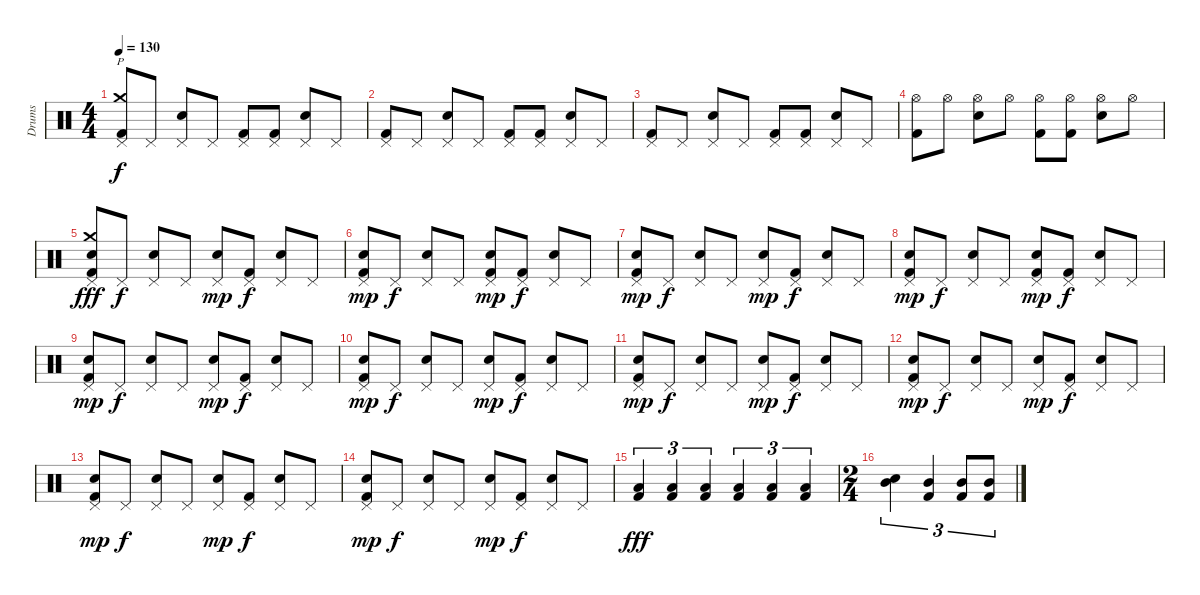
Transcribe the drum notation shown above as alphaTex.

\track ("Drums" "Drums") {instrument percussion}
\staff {score}
\articulation defaults
\ts (4 4)
\tempo 130
\clef neutral
\ks c
("Kick (hit) 2" "Crash medium (hit)" "Pedal Hi-Hat (hit)").8{p dy f} "Pedal Hi-Hat (hit)".8 ("Electric Snare (hit)" "Pedal Hi-Hat (hit)").8 "Pedal Hi-Hat (hit)".8 ("Kick (hit) 2" "Pedal Hi-Hat (hit)").8 ("Kick (hit) 2" "Pedal Hi-Hat (hit)").8 ("Electric Snare (hit)" "Pedal Hi-Hat (hit)").8 "Pedal Hi-Hat (hit)".8 |
("Kick (hit) 2" "Pedal Hi-Hat (hit)").8 "Pedal Hi-Hat (hit)".8 ("Electric Snare (hit)" "Pedal Hi-Hat (hit)").8 "Pedal Hi-Hat (hit)".8 ("Kick (hit) 2" "Pedal Hi-Hat (hit)").8 ("Kick (hit) 2" "Pedal Hi-Hat (hit)").8 ("Electric Snare (hit)" "Pedal Hi-Hat (hit)").8 "Pedal Hi-Hat (hit)".8 |
("Kick (hit) 2" "Pedal Hi-Hat (hit)").8 "Pedal Hi-Hat (hit)".8 ("Electric Snare (hit)" "Pedal Hi-Hat (hit)").8 "Pedal Hi-Hat (hit)".8 ("Kick (hit) 2" "Pedal Hi-Hat (hit)").8 ("Kick (hit) 2" "Pedal Hi-Hat (hit)").8 ("Electric Snare (hit)" "Pedal Hi-Hat (hit)").8 "Pedal Hi-Hat (hit)".8 |
("Kick (hit) 2" "Hi-Hat (open)").8 "Hi-Hat (open)".8 ("Electric Snare (hit)" "Hi-Hat (open)").8 "Hi-Hat (open)".8 ("Kick (hit) 2" "Hi-Hat (open)").8 ("Kick (hit) 2" "Hi-Hat (open)").8 ("Electric Snare (hit)" "Hi-Hat (open)").8 "Hi-Hat (open)".8 |
("Kick (hit) 2" "Electric Snare (hit)" "Pedal Hi-Hat (hit)" "Crash medium (hit)").8{dy fff} "Pedal Hi-Hat (hit)".8{dy f} ("Electric Snare (hit)" "Pedal Hi-Hat (hit)").8 "Pedal Hi-Hat (hit)".8 ("Pedal Hi-Hat (hit)" "Electric Snare (hit)").8{dy mp} ("Kick (hit) 2" "Pedal Hi-Hat (hit)").8{dy f} ("Electric Snare (hit)" "Pedal Hi-Hat (hit)").8 "Pedal Hi-Hat (hit)".8 |
("Kick (hit) 2" "Pedal Hi-Hat (hit)" "Electric Snare (hit)").8{dy mp} "Pedal Hi-Hat (hit)".8{dy f} ("Electric Snare (hit)" "Pedal Hi-Hat (hit)").8 "Pedal Hi-Hat (hit)".8 ("Kick (hit) 2" "Pedal Hi-Hat (hit)" "Electric Snare (hit)").8{dy mp} ("Kick (hit) 2" "Pedal Hi-Hat (hit)").8{dy f} ("Electric Snare (hit)" "Pedal Hi-Hat (hit)").8 "Pedal Hi-Hat (hit)".8 |
("Kick (hit) 2" "Electric Snare (hit)" "Pedal Hi-Hat (hit)").8{dy mp} "Pedal Hi-Hat (hit)".8{dy f} ("Electric Snare (hit)" "Pedal Hi-Hat (hit)").8 "Pedal Hi-Hat (hit)".8 ("Pedal Hi-Hat (hit)" "Electric Snare (hit)").8{dy mp} ("Kick (hit) 2" "Pedal Hi-Hat (hit)").8{dy f} ("Electric Snare (hit)" "Pedal Hi-Hat (hit)").8 "Pedal Hi-Hat (hit)".8 |
("Kick (hit) 2" "Pedal Hi-Hat (hit)" "Electric Snare (hit)").8{dy mp} "Pedal Hi-Hat (hit)".8{dy f} ("Electric Snare (hit)" "Pedal Hi-Hat (hit)").8 "Pedal Hi-Hat (hit)".8 ("Kick (hit) 2" "Pedal Hi-Hat (hit)" "Electric Snare (hit)").8{dy mp} ("Kick (hit) 2" "Pedal Hi-Hat (hit)").8{dy f} ("Electric Snare (hit)" "Pedal Hi-Hat (hit)").8 "Pedal Hi-Hat (hit)".8 |
("Kick (hit) 2" "Electric Snare (hit)" "Pedal Hi-Hat (hit)").8{dy mp} "Pedal Hi-Hat (hit)".8{dy f} ("Electric Snare (hit)" "Pedal Hi-Hat (hit)").8 "Pedal Hi-Hat (hit)".8 ("Pedal Hi-Hat (hit)" "Electric Snare (hit)").8{dy mp} ("Kick (hit) 2" "Pedal Hi-Hat (hit)").8{dy f} ("Electric Snare (hit)" "Pedal Hi-Hat (hit)").8 "Pedal Hi-Hat (hit)".8 |
("Kick (hit) 2" "Electric Snare (hit)" "Pedal Hi-Hat (hit)").8{dy mp} "Pedal Hi-Hat (hit)".8{dy f} ("Electric Snare (hit)" "Pedal Hi-Hat (hit)").8 "Pedal Hi-Hat (hit)".8 ("Pedal Hi-Hat (hit)" "Electric Snare (hit)").8{dy mp} ("Kick (hit) 2" "Pedal Hi-Hat (hit)").8{dy f} ("Electric Snare (hit)" "Pedal Hi-Hat (hit)").8 "Pedal Hi-Hat (hit)".8 |
("Kick (hit) 2" "Electric Snare (hit)" "Pedal Hi-Hat (hit)").8{dy mp} "Pedal Hi-Hat (hit)".8{dy f} ("Electric Snare (hit)" "Pedal Hi-Hat (hit)").8 "Pedal Hi-Hat (hit)".8 ("Pedal Hi-Hat (hit)" "Electric Snare (hit)").8{dy mp} ("Kick (hit) 2" "Pedal Hi-Hat (hit)").8{dy f} ("Electric Snare (hit)" "Pedal Hi-Hat (hit)").8 "Pedal Hi-Hat (hit)".8 |
("Kick (hit) 2" "Electric Snare (hit)" "Pedal Hi-Hat (hit)").8{dy mp} "Pedal Hi-Hat (hit)".8{dy f} ("Electric Snare (hit)" "Pedal Hi-Hat (hit)").8 "Pedal Hi-Hat (hit)".8 ("Pedal Hi-Hat (hit)" "Electric Snare (hit)").8{dy mp} ("Kick (hit) 2" "Pedal Hi-Hat (hit)").8{dy f} ("Electric Snare (hit)" "Pedal Hi-Hat (hit)").8 "Pedal Hi-Hat (hit)".8 |
("Kick (hit) 2" "Electric Snare (hit)" "Pedal Hi-Hat (hit)").8{dy mp} "Pedal Hi-Hat (hit)".8{dy f} ("Electric Snare (hit)" "Pedal Hi-Hat (hit)").8 "Pedal Hi-Hat (hit)".8 ("Pedal Hi-Hat (hit)" "Electric Snare (hit)").8{dy mp} ("Kick (hit) 2" "Pedal Hi-Hat (hit)").8{dy f} ("Electric Snare (hit)" "Pedal Hi-Hat (hit)").8 "Pedal Hi-Hat (hit)".8 |
("Kick (hit) 2" "Electric Snare (hit)" "Pedal Hi-Hat (hit)").8{dy mp} "Pedal Hi-Hat (hit)".8{dy f} ("Electric Snare (hit)" "Pedal Hi-Hat (hit)").8 "Pedal Hi-Hat (hit)".8 ("Pedal Hi-Hat (hit)" "Electric Snare (hit)").8{dy mp} ("Kick (hit) 2" "Pedal Hi-Hat (hit)").8{dy f} ("Electric Snare (hit)" "Pedal Hi-Hat (hit)").8 "Pedal Hi-Hat (hit)".8 |
("Low Tom (hit)" "Kick (hit) 2").4{tu (3 2) dy fff} ("Low Tom (hit)" "Kick (hit) 2").4{tu (3 2)} ("Low Tom (hit)" "Kick (hit) 2").4{tu (3 2)} ("Low Tom (hit)" "Kick (hit) 2").4{tu (3 2)} ("Low Tom (hit)" "Kick (hit) 2").4{tu (3 2)} ("Low Tom (hit)" "Kick (hit) 2").4{tu (3 2)} |
\ts (2 4)
("Electric Snare (hit)" "Mid Tom (hit)").4{tu (3 2)} ("Mid Tom (hit)" "Kick (hit) 2").4{tu (3 2)} ("Mid Tom (hit)" "Kick (hit) 2").8{tu (3 2)} ("Mid Tom (hit)" "Kick (hit) 2").8{tu (3 2)}
